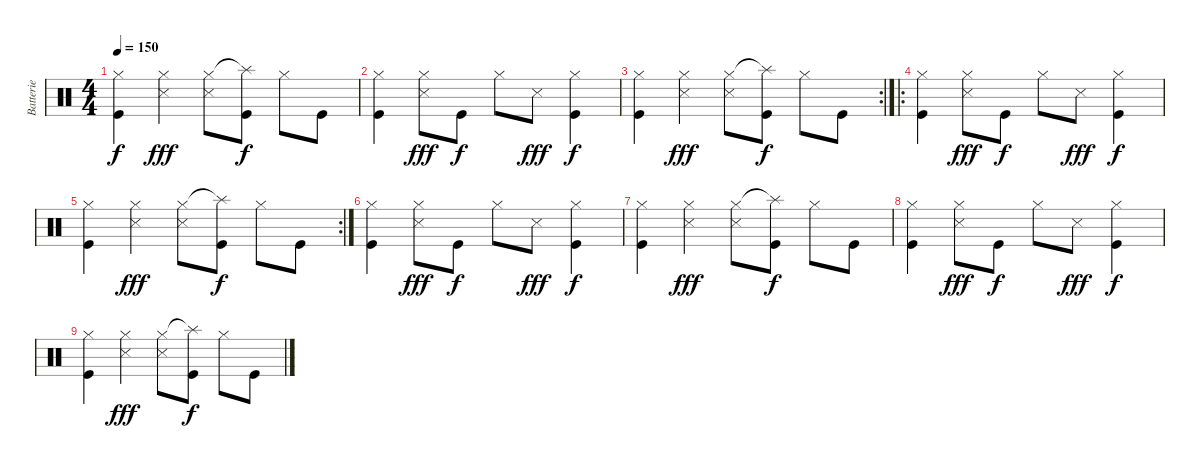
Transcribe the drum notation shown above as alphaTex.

\track ("Batterie" "Batterie") {instrument percussion}
\staff {score}
\articulation defaults
\ts (4 4)
\tempo 150
\clef neutral
\ks c
("Hi-Hat (closed)" "Kick (hit)").4{dy f} ("Hi-Hat (closed)" "Snare (side stick) 3").4{dy fff} ("Hi-Hat (closed)" "Snare (side stick) 3").8 ("Splash (hit)"{t} "Kick (hit)").8{dy f} "Hi-Hat (closed)".8 "Kick (hit)".8 |
("Hi-Hat (closed)" "Kick (hit)").4 ("Hi-Hat (closed)" "Snare (side stick) 3").8{dy fff} "Kick (hit)".8{dy f} "Hi-Hat (closed)".8 "Snare (side stick) 3".8{dy fff} ("Hi-Hat (closed)" "Kick (hit)").4{dy f} |
\rc 2
("Hi-Hat (closed)" "Kick (hit)").4 ("Hi-Hat (closed)" "Snare (side stick) 3").4{dy fff} ("Hi-Hat (closed)" "Snare (side stick) 3").8 ("Splash (hit)"{t} "Kick (hit)").8{dy f} "Hi-Hat (closed)".8 "Kick (hit)".8 |
\ro
("Hi-Hat (closed)" "Kick (hit)").4 ("Hi-Hat (closed)" "Snare (side stick) 3").8{dy fff} "Kick (hit)".8{dy f} "Hi-Hat (closed)".8 "Snare (side stick) 3".8{dy fff} ("Hi-Hat (closed)" "Kick (hit)").4{dy f} |
\rc 2
("Hi-Hat (closed)" "Kick (hit)").4 ("Hi-Hat (closed)" "Snare (side stick) 3").4{dy fff} ("Hi-Hat (closed)" "Snare (side stick) 3").8 ("Splash (hit)"{t} "Kick (hit)").8{dy f} "Hi-Hat (closed)".8 "Kick (hit)".8 |
("Hi-Hat (closed)" "Kick (hit)").4{volume 6} ("Hi-Hat (closed)" "Snare (side stick) 3").8{dy fff} "Kick (hit)".8{dy f} "Hi-Hat (closed)".8 "Snare (side stick) 3".8{dy fff} ("Hi-Hat (closed)" "Kick (hit)").4{dy f} |
("Hi-Hat (closed)" "Kick (hit)").4 ("Hi-Hat (closed)" "Snare (side stick) 3").4{dy fff} ("Hi-Hat (closed)" "Snare (side stick) 3").8 ("Splash (hit)"{t} "Kick (hit)").8{dy f} "Hi-Hat (closed)".8 "Kick (hit)".8 |
("Hi-Hat (closed)" "Kick (hit)").4 ("Hi-Hat (closed)" "Snare (side stick) 3").8{dy fff} "Kick (hit)".8{dy f} "Hi-Hat (closed)".8 "Snare (side stick) 3".8{dy fff} ("Hi-Hat (closed)" "Kick (hit)").4{dy f} |
("Hi-Hat (closed)" "Kick (hit)").4 ("Hi-Hat (closed)" "Snare (side stick) 3").4{dy fff} ("Hi-Hat (closed)" "Snare (side stick) 3").8 ("Splash (hit)"{t} "Kick (hit)").8{dy f} "Hi-Hat (closed)".8 "Kick (hit)".8
